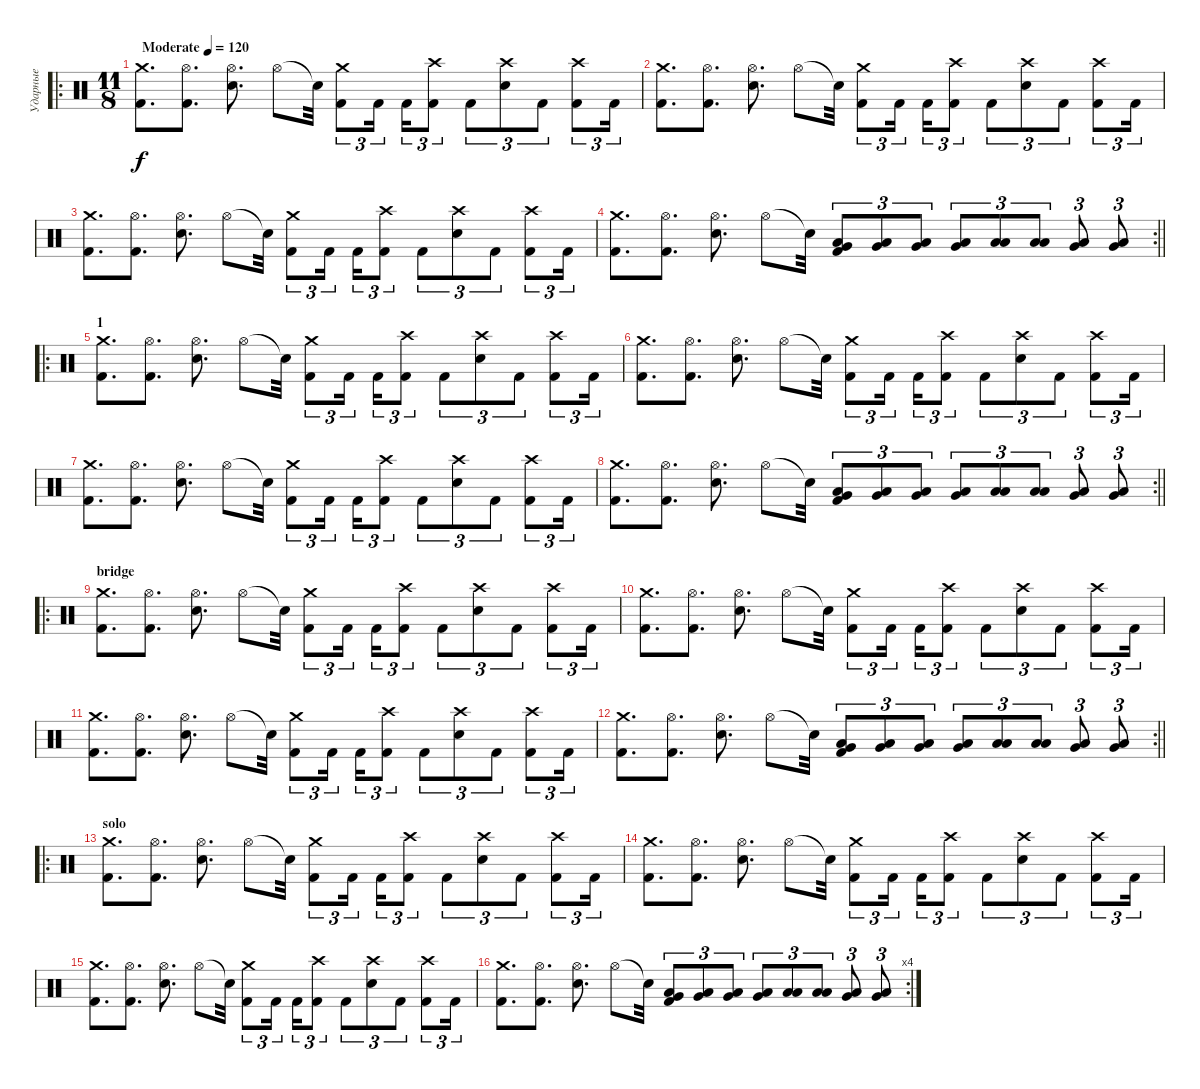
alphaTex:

\track ("Ударные" "Ударные") {instrument percussion}
\staff {score}
\articulation defaults
\ro
\ts (11 8)
\tempo (120 "Moderate")
\clef neutral
\ks c
("Crash medium (hit)" "Kick (hit) 2").8{d dy f} ("Hi-Hat (open)" "Kick (hit) 2").8{d} ("Hi-Hat (open)" "Electric Snare (hit)").8{d} "Hi-Hat (open)".8 "Snare (hit)"{t}.32 ("Crash medium (hit)" "Kick (hit) 2").8{tu (3 2)} "Kick (hit) 2".16{tu (3 2)} "Kick (hit) 2".16{tu (3 2)} ("Crash high (hit)" "Kick (hit) 2").8{tu (3 2)} "Kick (hit) 2".8{tu (3 2)} ("Crash high (hit)" "Electric Snare (hit)").8{tu (3 2)} "Kick (hit) 2".8{tu (3 2)} ("Crash high (hit)" "Kick (hit) 2").8{tu (3 2)} "Kick (hit) 2".16{tu (3 2)} |
("Crash medium (hit)" "Kick (hit) 2").8{d} ("Hi-Hat (open)" "Kick (hit) 2").8{d} ("Hi-Hat (open)" "Electric Snare (hit)").8{d} "Hi-Hat (open)".8 "Snare (hit)"{t}.32 ("Crash medium (hit)" "Kick (hit) 2").8{tu (3 2)} "Kick (hit) 2".16{tu (3 2)} "Kick (hit) 2".16{tu (3 2)} ("Crash high (hit)" "Kick (hit) 2").8{tu (3 2)} "Kick (hit) 2".8{tu (3 2)} ("Crash high (hit)" "Electric Snare (hit)").8{tu (3 2)} "Kick (hit) 2".8{tu (3 2)} ("Crash high (hit)" "Kick (hit) 2").8{tu (3 2)} "Kick (hit) 2".16{tu (3 2)} |
("Crash medium (hit)" "Kick (hit) 2").8{d} ("Hi-Hat (open)" "Kick (hit) 2").8{d} ("Hi-Hat (open)" "Electric Snare (hit)").8{d} "Hi-Hat (open)".8 "Snare (hit)"{t}.32 ("Crash medium (hit)" "Kick (hit) 2").8{tu (3 2)} "Kick (hit) 2".16{tu (3 2)} "Kick (hit) 2".16{tu (3 2)} ("Crash high (hit)" "Kick (hit) 2").8{tu (3 2)} "Kick (hit) 2".8{tu (3 2)} ("Crash high (hit)" "Electric Snare (hit)").8{tu (3 2)} "Kick (hit) 2".8{tu (3 2)} ("Crash high (hit)" "Kick (hit) 2").8{tu (3 2)} "Kick (hit) 2".16{tu (3 2)} |
\rc 2
\barLineRight lightlight
("Crash medium (hit)" "Kick (hit) 2").8{d} ("Hi-Hat (open)" "Kick (hit) 2").8{d} ("Hi-Hat (open)" "Electric Snare (hit)").8{d} "Hi-Hat (open)".8 "Snare (hit)"{t}.32 ("Very Low Tom (hit)" "Low Floor Tom (hit)" "Kick (hit) 2").8{tu (3 2)} ("Very Low Tom (hit)" "Low Floor Tom (hit)").8{tu (3 2)} ("Low Tom (hit)" "Very Low Tom (hit)").8{tu (3 2)} ("Low Tom (hit)" "Very Low Tom (hit)").8{tu (3 2)} ("Low Tom (hit)" "Low Floor Tom (hit)").8{tu (3 2)} ("Low Tom (hit)" "Low Floor Tom (hit)").8{tu (3 2)} ("Very Low Tom (hit)" "Low Floor Tom (hit)").8{tu (3 2)} ("Very Low Tom (hit)" "Low Floor Tom (hit)").8{tu (3 2)} |
\ro
\section ("" "1")
("Crash medium (hit)" "Kick (hit) 2").8{d} ("Hi-Hat (open)" "Kick (hit) 2").8{d} ("Hi-Hat (open)" "Electric Snare (hit)").8{d} "Hi-Hat (open)".8 "Snare (hit)"{t}.32 ("Crash medium (hit)" "Kick (hit) 2").8{tu (3 2)} "Kick (hit) 2".16{tu (3 2)} "Kick (hit) 2".16{tu (3 2)} ("Crash high (hit)" "Kick (hit) 2").8{tu (3 2)} "Kick (hit) 2".8{tu (3 2)} ("Crash high (hit)" "Electric Snare (hit)").8{tu (3 2)} "Kick (hit) 2".8{tu (3 2)} ("Crash high (hit)" "Kick (hit) 2").8{tu (3 2)} "Kick (hit) 2".16{tu (3 2)} |
("Crash medium (hit)" "Kick (hit) 2").8{d} ("Hi-Hat (open)" "Kick (hit) 2").8{d} ("Hi-Hat (open)" "Electric Snare (hit)").8{d} "Hi-Hat (open)".8 "Snare (hit)"{t}.32 ("Crash medium (hit)" "Kick (hit) 2").8{tu (3 2)} "Kick (hit) 2".16{tu (3 2)} "Kick (hit) 2".16{tu (3 2)} ("Crash high (hit)" "Kick (hit) 2").8{tu (3 2)} "Kick (hit) 2".8{tu (3 2)} ("Crash high (hit)" "Electric Snare (hit)").8{tu (3 2)} "Kick (hit) 2".8{tu (3 2)} ("Crash high (hit)" "Kick (hit) 2").8{tu (3 2)} "Kick (hit) 2".16{tu (3 2)} |
("Crash medium (hit)" "Kick (hit) 2").8{d} ("Hi-Hat (open)" "Kick (hit) 2").8{d} ("Hi-Hat (open)" "Electric Snare (hit)").8{d} "Hi-Hat (open)".8 "Snare (hit)"{t}.32 ("Crash medium (hit)" "Kick (hit) 2").8{tu (3 2)} "Kick (hit) 2".16{tu (3 2)} "Kick (hit) 2".16{tu (3 2)} ("Crash high (hit)" "Kick (hit) 2").8{tu (3 2)} "Kick (hit) 2".8{tu (3 2)} ("Crash high (hit)" "Electric Snare (hit)").8{tu (3 2)} "Kick (hit) 2".8{tu (3 2)} ("Crash high (hit)" "Kick (hit) 2").8{tu (3 2)} "Kick (hit) 2".16{tu (3 2)} |
\rc 2
\barLineRight lightlight
("Crash medium (hit)" "Kick (hit) 2").8{d} ("Hi-Hat (open)" "Kick (hit) 2").8{d} ("Hi-Hat (open)" "Electric Snare (hit)").8{d} "Hi-Hat (open)".8 "Snare (hit)"{t}.32 ("Very Low Tom (hit)" "Low Floor Tom (hit)" "Kick (hit) 2").8{tu (3 2)} ("Very Low Tom (hit)" "Low Floor Tom (hit)").8{tu (3 2)} ("Low Tom (hit)" "Very Low Tom (hit)").8{tu (3 2)} ("Low Tom (hit)" "Very Low Tom (hit)").8{tu (3 2)} ("Low Tom (hit)" "Low Floor Tom (hit)").8{tu (3 2)} ("Low Tom (hit)" "Low Floor Tom (hit)").8{tu (3 2)} ("Very Low Tom (hit)" "Low Floor Tom (hit)").8{tu (3 2)} ("Very Low Tom (hit)" "Low Floor Tom (hit)").8{tu (3 2)} |
\ro
\section ("" "bridge")
("Crash medium (hit)" "Kick (hit) 2").8{d} ("Hi-Hat (open)" "Kick (hit) 2").8{d} ("Hi-Hat (open)" "Electric Snare (hit)").8{d} "Hi-Hat (open)".8 "Snare (hit)"{t}.32 ("Crash medium (hit)" "Kick (hit) 2").8{tu (3 2)} "Kick (hit) 2".16{tu (3 2)} "Kick (hit) 2".16{tu (3 2)} ("Crash high (hit)" "Kick (hit) 2").8{tu (3 2)} "Kick (hit) 2".8{tu (3 2)} ("Crash high (hit)" "Electric Snare (hit)").8{tu (3 2)} "Kick (hit) 2".8{tu (3 2)} ("Crash high (hit)" "Kick (hit) 2").8{tu (3 2)} "Kick (hit) 2".16{tu (3 2)} |
("Crash medium (hit)" "Kick (hit) 2").8{d} ("Hi-Hat (open)" "Kick (hit) 2").8{d} ("Hi-Hat (open)" "Electric Snare (hit)").8{d} "Hi-Hat (open)".8 "Snare (hit)"{t}.32 ("Crash medium (hit)" "Kick (hit) 2").8{tu (3 2)} "Kick (hit) 2".16{tu (3 2)} "Kick (hit) 2".16{tu (3 2)} ("Crash high (hit)" "Kick (hit) 2").8{tu (3 2)} "Kick (hit) 2".8{tu (3 2)} ("Crash high (hit)" "Electric Snare (hit)").8{tu (3 2)} "Kick (hit) 2".8{tu (3 2)} ("Crash high (hit)" "Kick (hit) 2").8{tu (3 2)} "Kick (hit) 2".16{tu (3 2)} |
("Crash medium (hit)" "Kick (hit) 2").8{d} ("Hi-Hat (open)" "Kick (hit) 2").8{d} ("Hi-Hat (open)" "Electric Snare (hit)").8{d} "Hi-Hat (open)".8 "Snare (hit)"{t}.32 ("Crash medium (hit)" "Kick (hit) 2").8{tu (3 2)} "Kick (hit) 2".16{tu (3 2)} "Kick (hit) 2".16{tu (3 2)} ("Crash high (hit)" "Kick (hit) 2").8{tu (3 2)} "Kick (hit) 2".8{tu (3 2)} ("Crash high (hit)" "Electric Snare (hit)").8{tu (3 2)} "Kick (hit) 2".8{tu (3 2)} ("Crash high (hit)" "Kick (hit) 2").8{tu (3 2)} "Kick (hit) 2".16{tu (3 2)} |
\rc 2
\barLineRight lightlight
("Crash medium (hit)" "Kick (hit) 2").8{d} ("Hi-Hat (open)" "Kick (hit) 2").8{d} ("Hi-Hat (open)" "Electric Snare (hit)").8{d} "Hi-Hat (open)".8 "Snare (hit)"{t}.32 ("Very Low Tom (hit)" "Low Floor Tom (hit)" "Kick (hit) 2").8{tu (3 2)} ("Very Low Tom (hit)" "Low Floor Tom (hit)").8{tu (3 2)} ("Low Tom (hit)" "Very Low Tom (hit)").8{tu (3 2)} ("Low Tom (hit)" "Very Low Tom (hit)").8{tu (3 2)} ("Low Tom (hit)" "Low Floor Tom (hit)").8{tu (3 2)} ("Low Tom (hit)" "Low Floor Tom (hit)").8{tu (3 2)} ("Very Low Tom (hit)" "Low Floor Tom (hit)").8{tu (3 2)} ("Very Low Tom (hit)" "Low Floor Tom (hit)").8{tu (3 2)} |
\ro
\section ("" "solo")
("Crash medium (hit)" "Kick (hit) 2").8{d} ("Hi-Hat (open)" "Kick (hit) 2").8{d} ("Hi-Hat (open)" "Electric Snare (hit)").8{d} "Hi-Hat (open)".8 "Snare (hit)"{t}.32 ("Crash medium (hit)" "Kick (hit) 2").8{tu (3 2)} "Kick (hit) 2".16{tu (3 2)} "Kick (hit) 2".16{tu (3 2)} ("Crash high (hit)" "Kick (hit) 2").8{tu (3 2)} "Kick (hit) 2".8{tu (3 2)} ("Crash high (hit)" "Electric Snare (hit)").8{tu (3 2)} "Kick (hit) 2".8{tu (3 2)} ("Crash high (hit)" "Kick (hit) 2").8{tu (3 2)} "Kick (hit) 2".16{tu (3 2)} |
("Crash medium (hit)" "Kick (hit) 2").8{d} ("Hi-Hat (open)" "Kick (hit) 2").8{d} ("Hi-Hat (open)" "Electric Snare (hit)").8{d} "Hi-Hat (open)".8 "Snare (hit)"{t}.32 ("Crash medium (hit)" "Kick (hit) 2").8{tu (3 2)} "Kick (hit) 2".16{tu (3 2)} "Kick (hit) 2".16{tu (3 2)} ("Crash high (hit)" "Kick (hit) 2").8{tu (3 2)} "Kick (hit) 2".8{tu (3 2)} ("Crash high (hit)" "Electric Snare (hit)").8{tu (3 2)} "Kick (hit) 2".8{tu (3 2)} ("Crash high (hit)" "Kick (hit) 2").8{tu (3 2)} "Kick (hit) 2".16{tu (3 2)} |
("Crash medium (hit)" "Kick (hit) 2").8{d} ("Hi-Hat (open)" "Kick (hit) 2").8{d} ("Hi-Hat (open)" "Electric Snare (hit)").8{d} "Hi-Hat (open)".8 "Snare (hit)"{t}.32 ("Crash medium (hit)" "Kick (hit) 2").8{tu (3 2)} "Kick (hit) 2".16{tu (3 2)} "Kick (hit) 2".16{tu (3 2)} ("Crash high (hit)" "Kick (hit) 2").8{tu (3 2)} "Kick (hit) 2".8{tu (3 2)} ("Crash high (hit)" "Electric Snare (hit)").8{tu (3 2)} "Kick (hit) 2".8{tu (3 2)} ("Crash high (hit)" "Kick (hit) 2").8{tu (3 2)} "Kick (hit) 2".16{tu (3 2)} |
\rc 4
("Crash medium (hit)" "Kick (hit) 2").8{d} ("Hi-Hat (open)" "Kick (hit) 2").8{d} ("Hi-Hat (open)" "Electric Snare (hit)").8{d} "Hi-Hat (open)".8 "Snare (hit)"{t}.32 ("Very Low Tom (hit)" "Low Floor Tom (hit)" "Kick (hit) 2").8{tu (3 2)} ("Very Low Tom (hit)" "Low Floor Tom (hit)").8{tu (3 2)} ("Low Tom (hit)" "Very Low Tom (hit)").8{tu (3 2)} ("Low Tom (hit)" "Very Low Tom (hit)").8{tu (3 2)} ("Low Tom (hit)" "Low Floor Tom (hit)").8{tu (3 2)} ("Low Tom (hit)" "Low Floor Tom (hit)").8{tu (3 2)} ("Very Low Tom (hit)" "Low Floor Tom (hit)").8{tu (3 2)} ("Very Low Tom (hit)" "Low Floor Tom (hit)").8{tu (3 2)}
